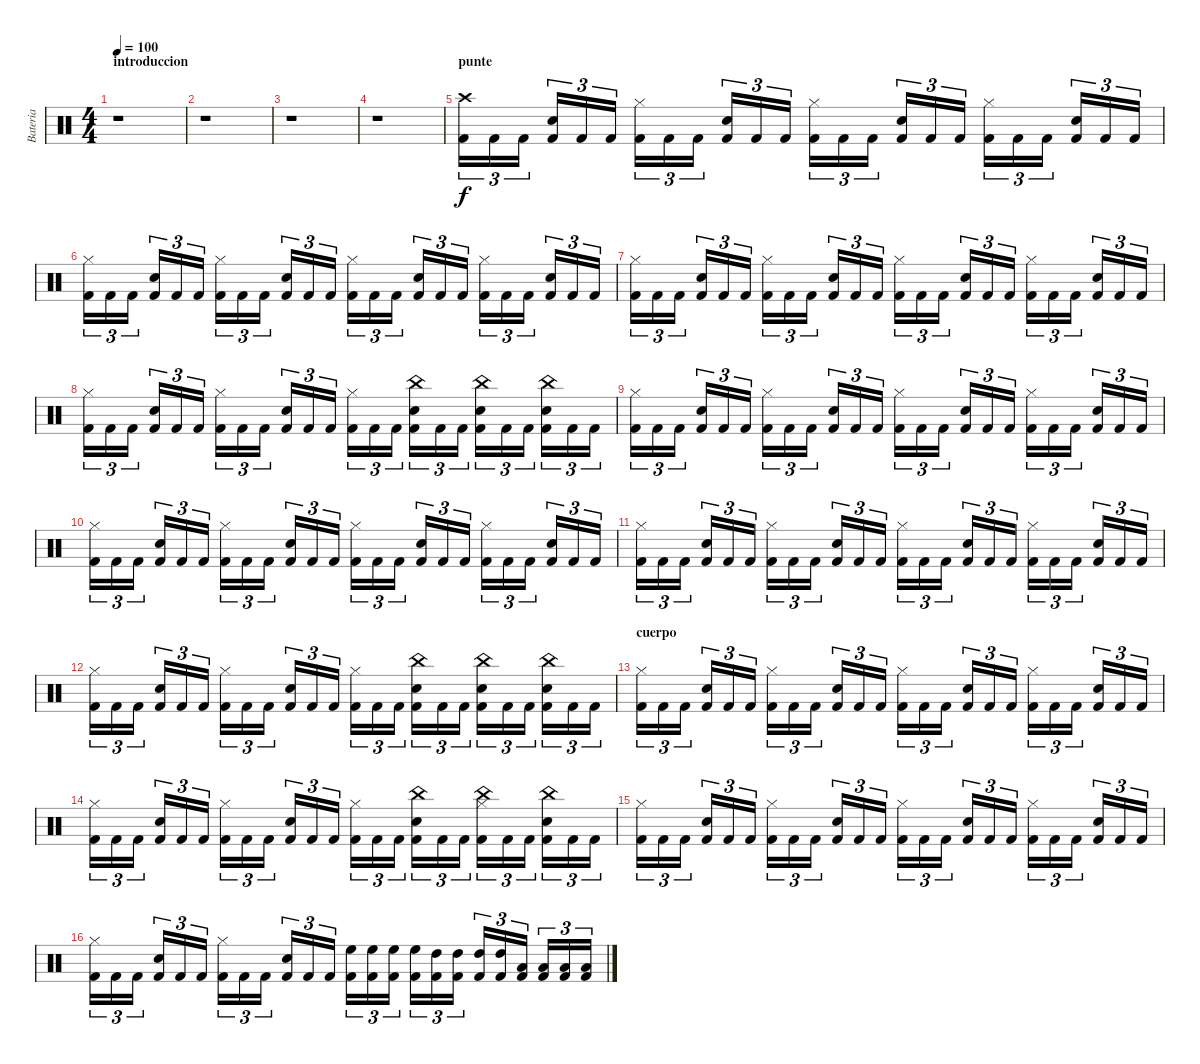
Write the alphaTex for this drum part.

\track ("Bateria" "Bateria") {instrument percussion}
\staff {score}
\articulation defaults
\ts (4 4)
\section ("" "introduccion")
\tempo 100
\clef neutral
\ks c
r.1{dy f} |
r.1 |
r.1 |
r.1 |
\section ("" "punte")
("Crash high (hit)" "Kick (hit) 2").16{tu (3 2)} "Kick (hit) 2".16{tu (3 2)} "Kick (hit) 2".16{tu (3 2)} ("Snare (hit) 2" "Kick (hit) 2").16{tu (3 2)} "Kick (hit) 2".16{tu (3 2)} "Kick (hit) 2".16{tu (3 2)} ("Hi-Hat (closed)" "Kick (hit) 2").16{tu (3 2)} "Kick (hit) 2".16{tu (3 2)} "Kick (hit) 2".16{tu (3 2)} ("Snare (hit) 2" "Kick (hit) 2").16{tu (3 2)} "Kick (hit) 2".16{tu (3 2)} "Kick (hit) 2".16{tu (3 2)} ("Hi-Hat (closed)" "Kick (hit) 2").16{tu (3 2)} "Kick (hit) 2".16{tu (3 2)} "Kick (hit) 2".16{tu (3 2)} ("Snare (hit) 2" "Kick (hit) 2").16{tu (3 2)} "Kick (hit) 2".16{tu (3 2)} "Kick (hit) 2".16{tu (3 2)} ("Hi-Hat (closed)" "Kick (hit) 2").16{tu (3 2)} "Kick (hit) 2".16{tu (3 2)} "Kick (hit) 2".16{tu (3 2)} ("Snare (hit) 2" "Kick (hit) 2").16{tu (3 2)} "Kick (hit) 2".16{tu (3 2)} "Kick (hit) 2".16{tu (3 2)} |
("Hi-Hat (closed)" "Kick (hit) 2").16{tu (3 2)} "Kick (hit) 2".16{tu (3 2)} "Kick (hit) 2".16{tu (3 2)} ("Snare (hit) 2" "Kick (hit) 2").16{tu (3 2)} "Kick (hit) 2".16{tu (3 2)} "Kick (hit) 2".16{tu (3 2)} ("Hi-Hat (closed)" "Kick (hit) 2").16{tu (3 2)} "Kick (hit) 2".16{tu (3 2)} "Kick (hit) 2".16{tu (3 2)} ("Snare (hit) 2" "Kick (hit) 2").16{tu (3 2)} "Kick (hit) 2".16{tu (3 2)} "Kick (hit) 2".16{tu (3 2)} ("Hi-Hat (closed)" "Kick (hit) 2").16{tu (3 2)} "Kick (hit) 2".16{tu (3 2)} "Kick (hit) 2".16{tu (3 2)} ("Snare (hit) 2" "Kick (hit) 2").16{tu (3 2)} "Kick (hit) 2".16{tu (3 2)} "Kick (hit) 2".16{tu (3 2)} ("Hi-Hat (closed)" "Kick (hit) 2").16{tu (3 2)} "Kick (hit) 2".16{tu (3 2)} "Kick (hit) 2".16{tu (3 2)} ("Snare (hit) 2" "Kick (hit) 2").16{tu (3 2)} "Kick (hit) 2".16{tu (3 2)} "Kick (hit) 2".16{tu (3 2)} |
("Hi-Hat (closed)" "Kick (hit) 2").16{tu (3 2)} "Kick (hit) 2".16{tu (3 2)} "Kick (hit) 2".16{tu (3 2)} ("Snare (hit) 2" "Kick (hit) 2").16{tu (3 2)} "Kick (hit) 2".16{tu (3 2)} "Kick (hit) 2".16{tu (3 2)} ("Hi-Hat (closed)" "Kick (hit) 2").16{tu (3 2)} "Kick (hit) 2".16{tu (3 2)} "Kick (hit) 2".16{tu (3 2)} ("Snare (hit) 2" "Kick (hit) 2").16{tu (3 2)} "Kick (hit) 2".16{tu (3 2)} "Kick (hit) 2".16{tu (3 2)} ("Hi-Hat (closed)" "Kick (hit) 2").16{tu (3 2)} "Kick (hit) 2".16{tu (3 2)} "Kick (hit) 2".16{tu (3 2)} ("Snare (hit) 2" "Kick (hit) 2").16{tu (3 2)} "Kick (hit) 2".16{tu (3 2)} "Kick (hit) 2".16{tu (3 2)} ("Hi-Hat (closed)" "Kick (hit) 2").16{tu (3 2)} "Kick (hit) 2".16{tu (3 2)} "Kick (hit) 2".16{tu (3 2)} ("Snare (hit) 2" "Kick (hit) 2").16{tu (3 2)} "Kick (hit) 2".16{tu (3 2)} "Kick (hit) 2".16{tu (3 2)} |
("Hi-Hat (closed)" "Kick (hit) 2").16{tu (3 2)} "Kick (hit) 2".16{tu (3 2)} "Kick (hit) 2".16{tu (3 2)} ("Snare (hit) 2" "Kick (hit) 2").16{tu (3 2)} "Kick (hit) 2".16{tu (3 2)} "Kick (hit) 2".16{tu (3 2)} ("Hi-Hat (closed)" "Kick (hit) 2").16{tu (3 2)} "Kick (hit) 2".16{tu (3 2)} "Kick (hit) 2".16{tu (3 2)} ("Snare (hit) 2" "Kick (hit) 2").16{tu (3 2)} "Kick (hit) 2".16{tu (3 2)} "Kick (hit) 2".16{tu (3 2)} ("Hi-Hat (closed)" "Kick (hit) 2").16{tu (3 2)} "Kick (hit) 2".16{tu (3 2)} "Kick (hit) 2".16{tu (3 2)} ("China (hit)" "Snare (hit) 2" "Kick (hit) 2").16{tu (3 2)} "Kick (hit) 2".16{tu (3 2)} "Kick (hit) 2".16{tu (3 2)} ("China (hit)" "Snare (hit) 2" "Kick (hit) 2").16{tu (3 2)} "Kick (hit) 2".16{tu (3 2)} "Kick (hit) 2".16{tu (3 2)} ("China (hit)" "Snare (hit) 2" "Kick (hit) 2").16{tu (3 2)} "Kick (hit) 2".16{tu (3 2)} "Kick (hit) 2".16{tu (3 2)} |
("Hi-Hat (closed)" "Kick (hit) 2").16{tu (3 2)} "Kick (hit) 2".16{tu (3 2)} "Kick (hit) 2".16{tu (3 2)} ("Snare (hit) 2" "Kick (hit) 2").16{tu (3 2)} "Kick (hit) 2".16{tu (3 2)} "Kick (hit) 2".16{tu (3 2)} ("Hi-Hat (closed)" "Kick (hit) 2").16{tu (3 2)} "Kick (hit) 2".16{tu (3 2)} "Kick (hit) 2".16{tu (3 2)} ("Snare (hit) 2" "Kick (hit) 2").16{tu (3 2)} "Kick (hit) 2".16{tu (3 2)} "Kick (hit) 2".16{tu (3 2)} ("Hi-Hat (closed)" "Kick (hit) 2").16{tu (3 2)} "Kick (hit) 2".16{tu (3 2)} "Kick (hit) 2".16{tu (3 2)} ("Snare (hit) 2" "Kick (hit) 2").16{tu (3 2)} "Kick (hit) 2".16{tu (3 2)} "Kick (hit) 2".16{tu (3 2)} ("Hi-Hat (closed)" "Kick (hit) 2").16{tu (3 2)} "Kick (hit) 2".16{tu (3 2)} "Kick (hit) 2".16{tu (3 2)} ("Snare (hit) 2" "Kick (hit) 2").16{tu (3 2)} "Kick (hit) 2".16{tu (3 2)} "Kick (hit) 2".16{tu (3 2)} |
("Hi-Hat (closed)" "Kick (hit) 2").16{tu (3 2)} "Kick (hit) 2".16{tu (3 2)} "Kick (hit) 2".16{tu (3 2)} ("Snare (hit) 2" "Kick (hit) 2").16{tu (3 2)} "Kick (hit) 2".16{tu (3 2)} "Kick (hit) 2".16{tu (3 2)} ("Hi-Hat (closed)" "Kick (hit) 2").16{tu (3 2)} "Kick (hit) 2".16{tu (3 2)} "Kick (hit) 2".16{tu (3 2)} ("Snare (hit) 2" "Kick (hit) 2").16{tu (3 2)} "Kick (hit) 2".16{tu (3 2)} "Kick (hit) 2".16{tu (3 2)} ("Hi-Hat (closed)" "Kick (hit) 2").16{tu (3 2)} "Kick (hit) 2".16{tu (3 2)} "Kick (hit) 2".16{tu (3 2)} ("Snare (hit) 2" "Kick (hit) 2").16{tu (3 2)} "Kick (hit) 2".16{tu (3 2)} "Kick (hit) 2".16{tu (3 2)} ("Hi-Hat (closed)" "Kick (hit) 2").16{tu (3 2)} "Kick (hit) 2".16{tu (3 2)} "Kick (hit) 2".16{tu (3 2)} ("Snare (hit) 2" "Kick (hit) 2").16{tu (3 2)} "Kick (hit) 2".16{tu (3 2)} "Kick (hit) 2".16{tu (3 2)} |
("Hi-Hat (closed)" "Kick (hit) 2").16{tu (3 2)} "Kick (hit) 2".16{tu (3 2)} "Kick (hit) 2".16{tu (3 2)} ("Snare (hit) 2" "Kick (hit) 2").16{tu (3 2)} "Kick (hit) 2".16{tu (3 2)} "Kick (hit) 2".16{tu (3 2)} ("Hi-Hat (closed)" "Kick (hit) 2").16{tu (3 2)} "Kick (hit) 2".16{tu (3 2)} "Kick (hit) 2".16{tu (3 2)} ("Snare (hit) 2" "Kick (hit) 2").16{tu (3 2)} "Kick (hit) 2".16{tu (3 2)} "Kick (hit) 2".16{tu (3 2)} ("Hi-Hat (closed)" "Kick (hit) 2").16{tu (3 2)} "Kick (hit) 2".16{tu (3 2)} "Kick (hit) 2".16{tu (3 2)} ("Snare (hit) 2" "Kick (hit) 2").16{tu (3 2)} "Kick (hit) 2".16{tu (3 2)} "Kick (hit) 2".16{tu (3 2)} ("Hi-Hat (closed)" "Kick (hit) 2").16{tu (3 2)} "Kick (hit) 2".16{tu (3 2)} "Kick (hit) 2".16{tu (3 2)} ("Snare (hit) 2" "Kick (hit) 2").16{tu (3 2)} "Kick (hit) 2".16{tu (3 2)} "Kick (hit) 2".16{tu (3 2)} |
("Hi-Hat (closed)" "Kick (hit) 2").16{tu (3 2)} "Kick (hit) 2".16{tu (3 2)} "Kick (hit) 2".16{tu (3 2)} ("Snare (hit) 2" "Kick (hit) 2").16{tu (3 2)} "Kick (hit) 2".16{tu (3 2)} "Kick (hit) 2".16{tu (3 2)} ("Hi-Hat (closed)" "Kick (hit) 2").16{tu (3 2)} "Kick (hit) 2".16{tu (3 2)} "Kick (hit) 2".16{tu (3 2)} ("Snare (hit) 2" "Kick (hit) 2").16{tu (3 2)} "Kick (hit) 2".16{tu (3 2)} "Kick (hit) 2".16{tu (3 2)} ("Hi-Hat (closed)" "Kick (hit) 2").16{tu (3 2)} "Kick (hit) 2".16{tu (3 2)} "Kick (hit) 2".16{tu (3 2)} ("China (hit)" "Snare (hit) 2" "Kick (hit) 2").16{tu (3 2)} "Kick (hit) 2".16{tu (3 2)} "Kick (hit) 2".16{tu (3 2)} ("China (hit)" "Snare (hit) 2" "Kick (hit) 2").16{tu (3 2)} "Kick (hit) 2".16{tu (3 2)} "Kick (hit) 2".16{tu (3 2)} ("China (hit)" "Snare (hit) 2" "Kick (hit) 2").16{tu (3 2)} "Kick (hit) 2".16{tu (3 2)} "Kick (hit) 2".16{tu (3 2)} |
\section ("" "cuerpo")
("Hi-Hat (closed)" "Kick (hit) 2").16{tu (3 2)} "Kick (hit) 2".16{tu (3 2)} "Kick (hit) 2".16{tu (3 2)} ("Snare (hit) 2" "Kick (hit) 2").16{tu (3 2)} "Kick (hit) 2".16{tu (3 2)} "Kick (hit) 2".16{tu (3 2)} ("Hi-Hat (closed)" "Kick (hit) 2").16{tu (3 2)} "Kick (hit) 2".16{tu (3 2)} "Kick (hit) 2".16{tu (3 2)} ("Snare (hit) 2" "Kick (hit) 2").16{tu (3 2)} "Kick (hit) 2".16{tu (3 2)} "Kick (hit) 2".16{tu (3 2)} ("Hi-Hat (closed)" "Kick (hit) 2").16{tu (3 2)} "Kick (hit) 2".16{tu (3 2)} "Kick (hit) 2".16{tu (3 2)} ("Snare (hit) 2" "Kick (hit) 2").16{tu (3 2)} "Kick (hit) 2".16{tu (3 2)} "Kick (hit) 2".16{tu (3 2)} ("Hi-Hat (closed)" "Kick (hit) 2").16{tu (3 2)} "Kick (hit) 2".16{tu (3 2)} "Kick (hit) 2".16{tu (3 2)} ("Snare (hit) 2" "Kick (hit) 2").16{tu (3 2)} "Kick (hit) 2".16{tu (3 2)} "Kick (hit) 2".16{tu (3 2)} |
("Hi-Hat (closed)" "Kick (hit) 2").16{tu (3 2)} "Kick (hit) 2".16{tu (3 2)} "Kick (hit) 2".16{tu (3 2)} ("Snare (hit) 2" "Kick (hit) 2").16{tu (3 2)} "Kick (hit) 2".16{tu (3 2)} "Kick (hit) 2".16{tu (3 2)} ("Hi-Hat (closed)" "Kick (hit) 2").16{tu (3 2)} "Kick (hit) 2".16{tu (3 2)} "Kick (hit) 2".16{tu (3 2)} ("Snare (hit) 2" "Kick (hit) 2").16{tu (3 2)} "Kick (hit) 2".16{tu (3 2)} "Kick (hit) 2".16{tu (3 2)} ("Hi-Hat (closed)" "Kick (hit) 2").16{tu (3 2)} "Kick (hit) 2".16{tu (3 2)} "Kick (hit) 2".16{tu (3 2)} ("China (hit)" "Snare (hit) 2" "Kick (hit) 2").16{tu (3 2)} "Kick (hit) 2".16{tu (3 2)} "Kick (hit) 2".16{tu (3 2)} ("China (hit)" "Hi-Hat (closed)" "Kick (hit) 2").16{tu (3 2)} "Kick (hit) 2".16{tu (3 2)} "Kick (hit) 2".16{tu (3 2)} ("China (hit)" "Snare (hit) 2" "Kick (hit) 2").16{tu (3 2)} "Kick (hit) 2".16{tu (3 2)} "Kick (hit) 2".16{tu (3 2)} |
("Hi-Hat (closed)" "Kick (hit) 2").16{tu (3 2)} "Kick (hit) 2".16{tu (3 2)} "Kick (hit) 2".16{tu (3 2)} ("Snare (hit) 2" "Kick (hit) 2").16{tu (3 2)} "Kick (hit) 2".16{tu (3 2)} "Kick (hit) 2".16{tu (3 2)} ("Hi-Hat (closed)" "Kick (hit) 2").16{tu (3 2)} "Kick (hit) 2".16{tu (3 2)} "Kick (hit) 2".16{tu (3 2)} ("Snare (hit) 2" "Kick (hit) 2").16{tu (3 2)} "Kick (hit) 2".16{tu (3 2)} "Kick (hit) 2".16{tu (3 2)} ("Hi-Hat (closed)" "Kick (hit) 2").16{tu (3 2)} "Kick (hit) 2".16{tu (3 2)} "Kick (hit) 2".16{tu (3 2)} ("Snare (hit) 2" "Kick (hit) 2").16{tu (3 2)} "Kick (hit) 2".16{tu (3 2)} "Kick (hit) 2".16{tu (3 2)} ("Hi-Hat (closed)" "Kick (hit) 2").16{tu (3 2)} "Kick (hit) 2".16{tu (3 2)} "Kick (hit) 2".16{tu (3 2)} ("Snare (hit) 2" "Kick (hit) 2").16{tu (3 2)} "Kick (hit) 2".16{tu (3 2)} "Kick (hit) 2".16{tu (3 2)} |
("Hi-Hat (closed)" "Kick (hit) 2").16{tu (3 2)} "Kick (hit) 2".16{tu (3 2)} "Kick (hit) 2".16{tu (3 2)} ("Snare (hit) 2" "Kick (hit) 2").16{tu (3 2)} "Kick (hit) 2".16{tu (3 2)} "Kick (hit) 2".16{tu (3 2)} ("Hi-Hat (closed)" "Kick (hit) 2").16{tu (3 2)} "Kick (hit) 2".16{tu (3 2)} "Kick (hit) 2".16{tu (3 2)} ("Snare (hit) 2" "Kick (hit) 2").16{tu (3 2)} "Kick (hit) 2".16{tu (3 2)} "Kick (hit) 2".16{tu (3 2)} ("High Floor Tom (hit)" "Kick (hit) 2").16{tu (3 2)} ("High Floor Tom (hit)" "Kick (hit) 2").16{tu (3 2)} ("High Floor Tom (hit)" "Kick (hit) 2").16{tu (3 2)} ("High Floor Tom (hit)" "Kick (hit) 2").16{tu (3 2)} ("High Tom (hit)" "Kick (hit) 2").16{tu (3 2)} ("High Tom (hit)" "Kick (hit) 2").16{tu (3 2)} ("High Tom (hit)" "Kick (hit) 2").16{tu (3 2)} ("High Tom (hit)" "Kick (hit) 2").16{tu (3 2)} ("Low Tom (hit)" "Kick (hit) 2").16{tu (3 2)} ("Low Tom (hit)" "Kick (hit) 2").16{tu (3 2)} ("Low Tom (hit)" "Kick (hit) 2").16{tu (3 2)} ("Low Tom (hit)" "Kick (hit) 2").16{tu (3 2)}
